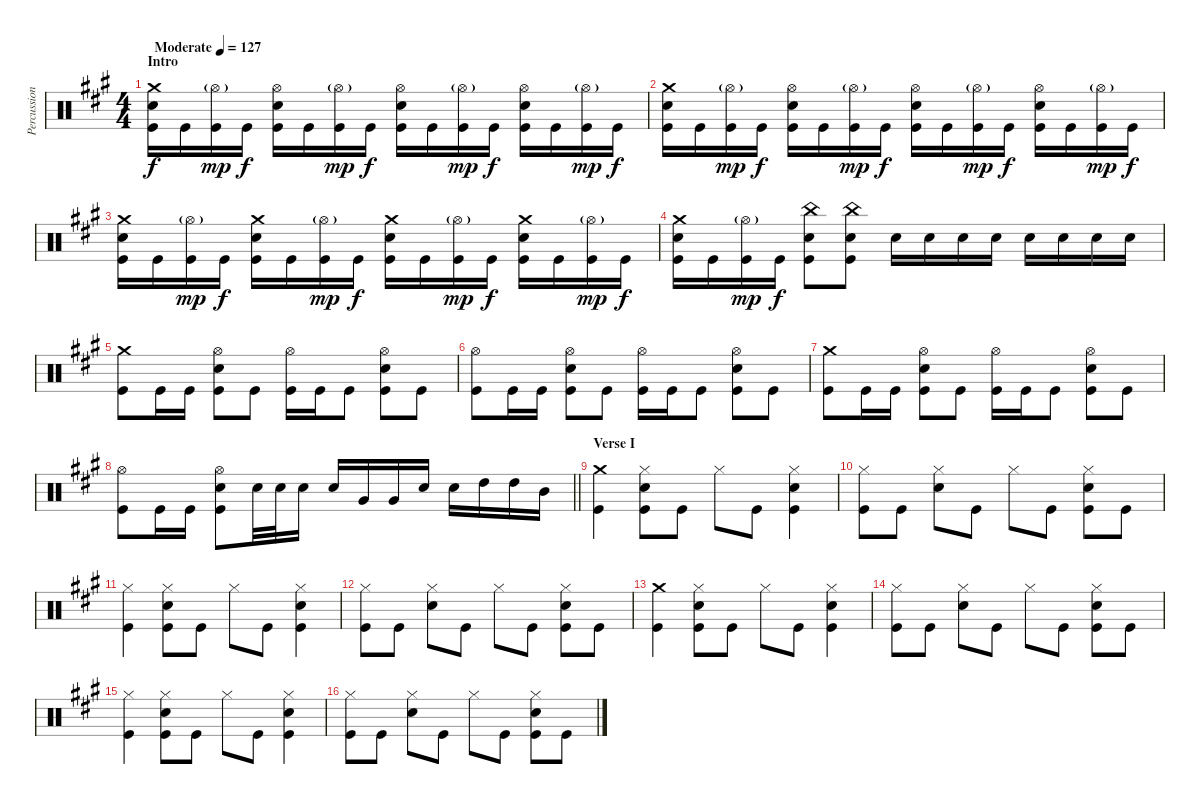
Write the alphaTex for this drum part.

\track ("Percussion" "Percussion") {instrument percussion}
\staff {score}
\articulation defaults
\ts (4 4)
\section ("" "Intro")
\tempo (127 "Moderate")
\clef neutral
\ks a
("Crash medium (hit)" "Electric Snare (hit)" "Kick (hit)").16{dy f} "Kick (hit)".16 ("Hi-Hat (open)"{g} "Kick (hit)").16{dy mp} "Kick (hit)".16{dy f} ("Hi-Hat (open)" "Electric Snare (hit)" "Kick (hit)").16 "Kick (hit)".16 ("Hi-Hat (open)"{g} "Kick (hit)").16{dy mp} "Kick (hit)".16{dy f} ("Hi-Hat (open)" "Electric Snare (hit)" "Kick (hit)").16 "Kick (hit)".16 ("Hi-Hat (open)"{g} "Kick (hit)").16{dy mp} "Kick (hit)".16{dy f} ("Hi-Hat (open)" "Electric Snare (hit)" "Kick (hit)").16 "Kick (hit)".16 ("Hi-Hat (open)"{g} "Kick (hit)").16{dy mp} "Kick (hit)".16{dy f} |
("Crash medium (hit)" "Electric Snare (hit)" "Kick (hit)").16 "Kick (hit)".16 ("Hi-Hat (open)"{g} "Kick (hit)").16{dy mp} "Kick (hit)".16{dy f} ("Hi-Hat (open)" "Electric Snare (hit)" "Kick (hit)").16 "Kick (hit)".16 ("Hi-Hat (open)"{g} "Kick (hit)").16{dy mp} "Kick (hit)".16{dy f} ("Hi-Hat (open)" "Electric Snare (hit)" "Kick (hit)").16 "Kick (hit)".16 ("Hi-Hat (open)"{g} "Kick (hit)").16{dy mp} "Kick (hit)".16{dy f} ("Hi-Hat (open)" "Electric Snare (hit)" "Kick (hit)").16 "Kick (hit)".16 ("Hi-Hat (open)"{g} "Kick (hit)").16{dy mp} "Kick (hit)".16{dy f} |
("Crash medium (hit)" "Electric Snare (hit)" "Kick (hit)").16 "Kick (hit)".16 ("Hi-Hat (open)"{g} "Kick (hit)").16{dy mp} "Kick (hit)".16{dy f} ("Crash medium (hit)" "Electric Snare (hit)" "Kick (hit)").16 "Kick (hit)".16 ("Hi-Hat (open)"{g} "Kick (hit)").16{dy mp} "Kick (hit)".16{dy f} ("Crash medium (hit)" "Electric Snare (hit)" "Kick (hit)").16 "Kick (hit)".16 ("Hi-Hat (open)"{g} "Kick (hit)").16{dy mp} "Kick (hit)".16{dy f} ("Crash medium (hit)" "Electric Snare (hit)" "Kick (hit)").16 "Kick (hit)".16 ("Hi-Hat (open)"{g} "Kick (hit)").16{dy mp} "Kick (hit)".16{dy f} |
("Crash medium (hit)" "Electric Snare (hit)" "Kick (hit)").16 "Kick (hit)".16 ("Hi-Hat (open)"{g} "Kick (hit)").16{dy mp} "Kick (hit)".16{dy f} ("China (hit)" "Electric Snare (hit)" "Kick (hit)").8 ("China (hit)" "Electric Snare (hit)" "Kick (hit)").8 "Electric Snare (hit)".16 "Electric Snare (hit)".16 "Electric Snare (hit)".16 "Electric Snare (hit)".16 "Electric Snare (hit)".16 "Electric Snare (hit)".16 "Electric Snare (hit)".16 "Electric Snare (hit)".16 |
("Crash medium (hit)" "Kick (hit)").8 "Kick (hit)".16 "Kick (hit)".16 ("Hi-Hat (open)" "Electric Snare (hit)" "Kick (hit)").8 "Kick (hit)".8 ("Hi-Hat (open)" "Kick (hit)").16 "Kick (hit)".16 "Kick (hit)".8 ("Hi-Hat (open)" "Electric Snare (hit)" "Kick (hit)").8 "Kick (hit)".8 |
("Hi-Hat (open)" "Kick (hit)").8 "Kick (hit)".16 "Kick (hit)".16 ("Hi-Hat (open)" "Electric Snare (hit)" "Kick (hit)").8 "Kick (hit)".8 ("Hi-Hat (open)" "Kick (hit)").16 "Kick (hit)".16 "Kick (hit)".8 ("Hi-Hat (open)" "Electric Snare (hit)" "Kick (hit)").8 "Kick (hit)".8 |
("Crash medium (hit)" "Kick (hit)").8 "Kick (hit)".16 "Kick (hit)".16 ("Hi-Hat (open)" "Electric Snare (hit)" "Kick (hit)").8 "Kick (hit)".8 ("Hi-Hat (open)" "Kick (hit)").16 "Kick (hit)".16 "Kick (hit)".8 ("Hi-Hat (open)" "Electric Snare (hit)" "Kick (hit)").8 "Kick (hit)".8 |
\barLineRight lightlight
("Hi-Hat (open)" "Kick (hit)").8 "Kick (hit)".16 "Kick (hit)".16 ("Hi-Hat (open)" "Electric Snare (hit)" "Kick (hit)").8 "Electric Snare (hit)".32 "Electric Snare (hit)".32 "Electric Snare (hit)".16 "Electric Snare (hit)".16 "Very Low Tom (hit)".16 "Very Low Tom (hit)".16 "Electric Snare (hit)".16 "Electric Snare (hit)".16 "High Tom (hit)".16 "High Tom (hit)".16 "Mid Tom (hit)".16 |
\section ("" "Verse I")
("Crash medium (hit)" "Kick (hit)").4 ("Hi-Hat (closed)" "Electric Snare (hit)" "Kick (hit)").8 "Kick (hit)".8 "Hi-Hat (closed)".8 "Kick (hit)".8 ("Hi-Hat (closed)" "Electric Snare (hit)" "Kick (hit)").4 |
("Hi-Hat (closed)" "Kick (hit)").8 "Kick (hit)".8 ("Hi-Hat (closed)" "Electric Snare (hit)").8 "Kick (hit)".8 "Hi-Hat (closed)".8 "Kick (hit)".8 ("Hi-Hat (closed)" "Electric Snare (hit)" "Kick (hit)").8 "Kick (hit)".8 |
("Hi-Hat (closed)" "Kick (hit)").4 ("Hi-Hat (closed)" "Electric Snare (hit)" "Kick (hit)").8 "Kick (hit)".8 "Hi-Hat (closed)".8 "Kick (hit)".8 ("Hi-Hat (closed)" "Electric Snare (hit)" "Kick (hit)").4 |
("Hi-Hat (closed)" "Kick (hit)").8 "Kick (hit)".8 ("Hi-Hat (closed)" "Electric Snare (hit)").8 "Kick (hit)".8 "Hi-Hat (closed)".8 "Kick (hit)".8 ("Hi-Hat (closed)" "Electric Snare (hit)" "Kick (hit)").8 "Kick (hit)".8 |
("Crash medium (hit)" "Kick (hit)").4 ("Hi-Hat (closed)" "Electric Snare (hit)" "Kick (hit)").8 "Kick (hit)".8 "Hi-Hat (closed)".8 "Kick (hit)".8 ("Hi-Hat (closed)" "Electric Snare (hit)" "Kick (hit)").4 |
("Hi-Hat (closed)" "Kick (hit)").8 "Kick (hit)".8 ("Hi-Hat (closed)" "Electric Snare (hit)").8 "Kick (hit)".8 "Hi-Hat (closed)".8 "Kick (hit)".8 ("Hi-Hat (closed)" "Electric Snare (hit)" "Kick (hit)").8 "Kick (hit)".8 |
("Hi-Hat (closed)" "Kick (hit)").4 ("Hi-Hat (closed)" "Electric Snare (hit)" "Kick (hit)").8 "Kick (hit)".8 "Hi-Hat (closed)".8 "Kick (hit)".8 ("Hi-Hat (closed)" "Electric Snare (hit)" "Kick (hit)").4 |
("Hi-Hat (closed)" "Kick (hit)").8 "Kick (hit)".8 ("Hi-Hat (closed)" "Electric Snare (hit)").8 "Kick (hit)".8 "Hi-Hat (closed)".8 "Kick (hit)".8 ("Hi-Hat (closed)" "Electric Snare (hit)" "Kick (hit)").8 "Kick (hit)".8
